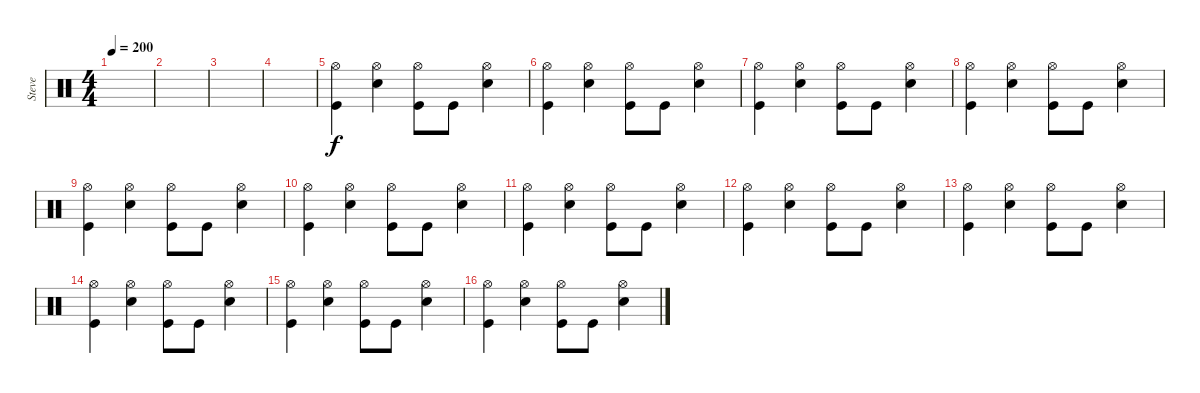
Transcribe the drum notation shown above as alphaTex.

\track ("Steve" "Steve") {instrument percussion}
\staff {score}
\articulation defaults
\ts (4 4)
\tempo 200
\clef neutral
\ks c
|
|
|
|
("Hi-Hat (open)" "Kick (hit)").4 ("Hi-Hat (open)" "Snare (hit) 2").4 ("Hi-Hat (open)" "Kick (hit)").8 "Kick (hit)".8 ("Hi-Hat (open)" "Snare (hit) 2").4 |
("Hi-Hat (open)" "Kick (hit)").4 ("Hi-Hat (open)" "Snare (hit) 2").4 ("Hi-Hat (open)" "Kick (hit)").8 "Kick (hit)".8 ("Hi-Hat (open)" "Snare (hit) 2").4 |
("Hi-Hat (open)" "Kick (hit)").4 ("Hi-Hat (open)" "Snare (hit) 2").4 ("Hi-Hat (open)" "Kick (hit)").8 "Kick (hit)".8 ("Hi-Hat (open)" "Snare (hit) 2").4 |
("Hi-Hat (open)" "Kick (hit)").4 ("Hi-Hat (open)" "Snare (hit) 2").4 ("Hi-Hat (open)" "Kick (hit)").8 "Kick (hit)".8 ("Hi-Hat (open)" "Snare (hit) 2").4 |
("Hi-Hat (open)" "Kick (hit)").4 ("Hi-Hat (open)" "Snare (hit) 2").4 ("Hi-Hat (open)" "Kick (hit)").8 "Kick (hit)".8 ("Hi-Hat (open)" "Snare (hit) 2").4 |
("Hi-Hat (open)" "Kick (hit)").4 ("Hi-Hat (open)" "Snare (hit) 2").4 ("Hi-Hat (open)" "Kick (hit)").8 "Kick (hit)".8 ("Hi-Hat (open)" "Snare (hit) 2").4 |
("Hi-Hat (open)" "Kick (hit)").4 ("Hi-Hat (open)" "Snare (hit) 2").4 ("Hi-Hat (open)" "Kick (hit)").8 "Kick (hit)".8 ("Hi-Hat (open)" "Snare (hit) 2").4 |
("Hi-Hat (open)" "Kick (hit)").4 ("Hi-Hat (open)" "Snare (hit) 2").4 ("Hi-Hat (open)" "Kick (hit)").8 "Kick (hit)".8 ("Hi-Hat (open)" "Snare (hit) 2").4 |
("Hi-Hat (open)" "Kick (hit)").4 ("Hi-Hat (open)" "Snare (hit) 2").4 ("Hi-Hat (open)" "Kick (hit)").8 "Kick (hit)".8 ("Hi-Hat (open)" "Snare (hit) 2").4 |
("Hi-Hat (open)" "Kick (hit)").4 ("Hi-Hat (open)" "Snare (hit) 2").4 ("Hi-Hat (open)" "Kick (hit)").8 "Kick (hit)".8 ("Hi-Hat (open)" "Snare (hit) 2").4 |
("Hi-Hat (open)" "Kick (hit)").4 ("Hi-Hat (open)" "Snare (hit) 2").4 ("Hi-Hat (open)" "Kick (hit)").8 "Kick (hit)".8 ("Hi-Hat (open)" "Snare (hit) 2").4 |
("Hi-Hat (open)" "Kick (hit)").4 ("Hi-Hat (open)" "Snare (hit) 2").4 ("Hi-Hat (open)" "Kick (hit)").8 "Kick (hit)".8 ("Hi-Hat (open)" "Snare (hit) 2").4
